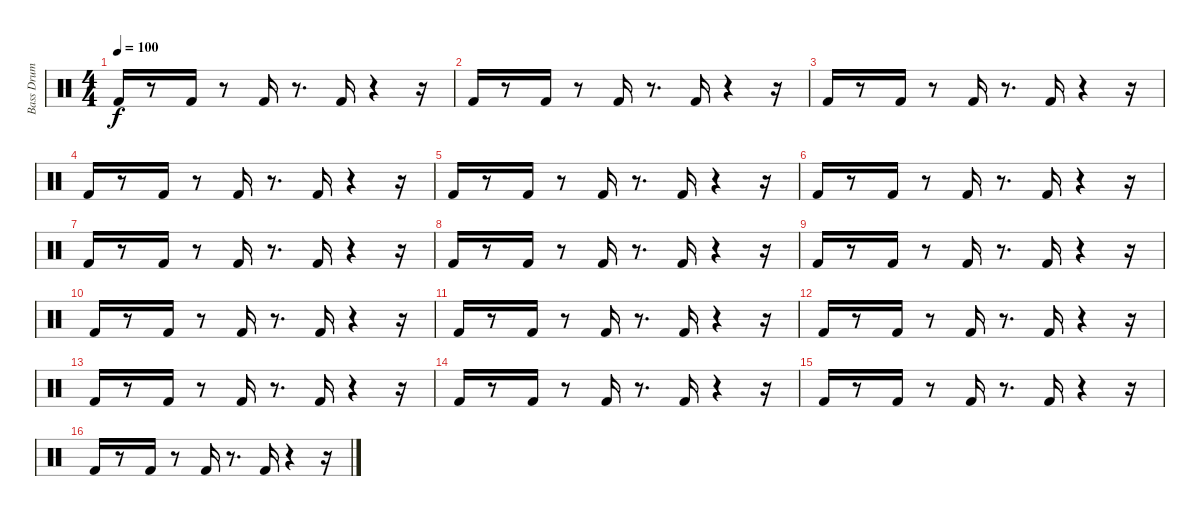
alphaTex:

\track ("Bass Drum" "Bass Drum") {instrument percussion}
\staff {score}
\articulation defaults
\ts (4 4)
\tempo 100
\clef neutral
\ks c "Kick (hit) 2".16{dy f}
r.8 "Kick (hit) 2".16 r.8 "Kick (hit) 2".16 r.8{d} "Kick (hit) 2".16 r.4 r.16 |
"Kick (hit) 2".16 r.8 "Kick (hit) 2".16 r.8 "Kick (hit) 2".16 r.8{d} "Kick (hit) 2".16 r.4 r.16 |
"Kick (hit) 2".16 r.8 "Kick (hit) 2".16 r.8 "Kick (hit) 2".16 r.8{d} "Kick (hit) 2".16 r.4 r.16 |
"Kick (hit) 2".16 r.8 "Kick (hit) 2".16 r.8 "Kick (hit) 2".16 r.8{d} "Kick (hit) 2".16 r.4 r.16 |
"Kick (hit) 2".16 r.8 "Kick (hit) 2".16 r.8 "Kick (hit) 2".16 r.8{d} "Kick (hit) 2".16 r.4 r.16 |
"Kick (hit) 2".16 r.8 "Kick (hit) 2".16 r.8 "Kick (hit) 2".16 r.8{d} "Kick (hit) 2".16 r.4 r.16 |
"Kick (hit) 2".16 r.8 "Kick (hit) 2".16 r.8 "Kick (hit) 2".16 r.8{d} "Kick (hit) 2".16 r.4 r.16 |
"Kick (hit) 2".16 r.8 "Kick (hit) 2".16 r.8 "Kick (hit) 2".16 r.8{d} "Kick (hit) 2".16 r.4 r.16 |
"Kick (hit) 2".16 r.8 "Kick (hit) 2".16 r.8 "Kick (hit) 2".16 r.8{d} "Kick (hit) 2".16 r.4 r.16 |
"Kick (hit) 2".16 r.8 "Kick (hit) 2".16 r.8 "Kick (hit) 2".16 r.8{d} "Kick (hit) 2".16 r.4 r.16 |
"Kick (hit) 2".16 r.8 "Kick (hit) 2".16 r.8 "Kick (hit) 2".16 r.8{d} "Kick (hit) 2".16 r.4 r.16 |
"Kick (hit) 2".16 r.8 "Kick (hit) 2".16 r.8 "Kick (hit) 2".16 r.8{d} "Kick (hit) 2".16 r.4 r.16 |
"Kick (hit) 2".16 r.8 "Kick (hit) 2".16 r.8 "Kick (hit) 2".16 r.8{d} "Kick (hit) 2".16 r.4 r.16 |
"Kick (hit) 2".16 r.8 "Kick (hit) 2".16 r.8 "Kick (hit) 2".16 r.8{d} "Kick (hit) 2".16 r.4 r.16 |
"Kick (hit) 2".16 r.8 "Kick (hit) 2".16 r.8 "Kick (hit) 2".16 r.8{d} "Kick (hit) 2".16 r.4 r.16 |
"Kick (hit) 2".16 r.8 "Kick (hit) 2".16 r.8 "Kick (hit) 2".16 r.8{d} "Kick (hit) 2".16 r.4 r.16
